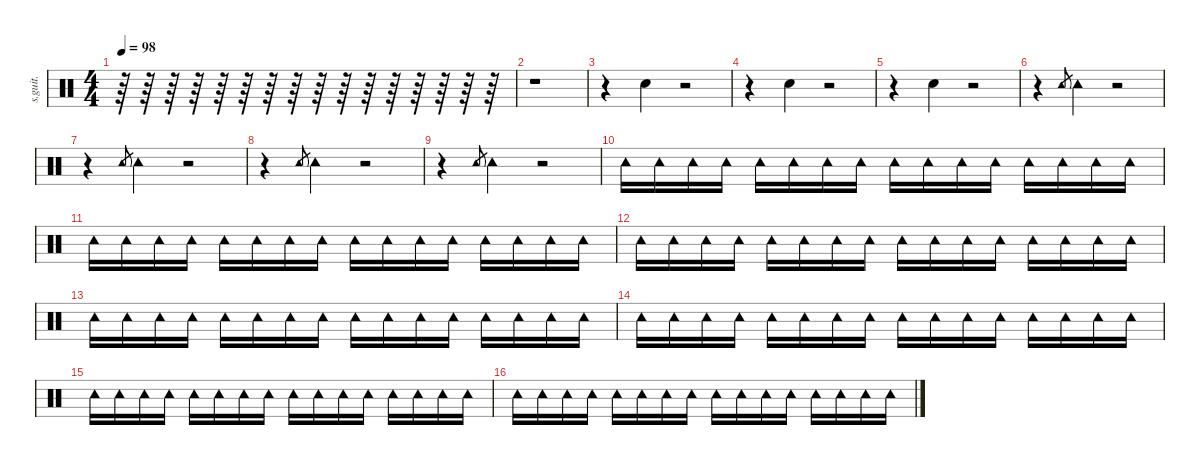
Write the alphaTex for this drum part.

\defaultSystemsLayout 4
\hideDynamics
\bracketExtendMode nobrackets
\track ("Additional Percussion" "s.guit.") {instrument percussion}
\staff {score}
\articulation defaults
\ts (4 4)
\beaming (8 2 2 2 2)
\ac
\tempo 98
\clef neutral
\ks c
r.64{dy ff} r.64 r.64 r.64 r.64 r.64 r.64 r.64 r.64 r.64 r.64 r.64 r.64 r.64 r.64 r.64 |
r.1 |
r.4 "Hand Clap (hit)".4 r.2 |
r.4 "Hand Clap (hit)".4 r.2 |
r.4 "Hand Clap (hit)".4 r.2 |
r.4 "Tambourine (hit)".8{gr} "Tambourine (hit)".4 r.2 |
r.4 "Tambourine (hit)".8{gr} "Tambourine (hit)".4 r.2 |
r.4 "Tambourine (hit)".8{gr} "Tambourine (hit)".4 r.2 |
r.4 "Tambourine (hit)".8{gr} "Tambourine (hit)".4 r.2 |
"Tambourine (hit)".16 "Tambourine (hit)".16 "Tambourine (hit)".16 "Tambourine (hit)".16 "Tambourine (hit)".16 "Tambourine (hit)".16 "Tambourine (hit)".16 "Tambourine (hit)".16 "Tambourine (hit)".16 "Tambourine (hit)".16 "Tambourine (hit)".16 "Tambourine (hit)".16 "Tambourine (hit)".16 "Tambourine (hit)".16 "Tambourine (hit)".16 "Tambourine (hit)".16 |
"Tambourine (hit)".16 "Tambourine (hit)".16 "Tambourine (hit)".16 "Tambourine (hit)".16 "Tambourine (hit)".16 "Tambourine (hit)".16 "Tambourine (hit)".16 "Tambourine (hit)".16 "Tambourine (hit)".16 "Tambourine (hit)".16 "Tambourine (hit)".16 "Tambourine (hit)".16 "Tambourine (hit)".16 "Tambourine (hit)".16 "Tambourine (hit)".16 "Tambourine (hit)".16 |
"Tambourine (hit)".16 "Tambourine (hit)".16 "Tambourine (hit)".16 "Tambourine (hit)".16 "Tambourine (hit)".16 "Tambourine (hit)".16 "Tambourine (hit)".16 "Tambourine (hit)".16 "Tambourine (hit)".16 "Tambourine (hit)".16 "Tambourine (hit)".16 "Tambourine (hit)".16 "Tambourine (hit)".16 "Tambourine (hit)".16 "Tambourine (hit)".16 "Tambourine (hit)".16 |
"Tambourine (hit)".16 "Tambourine (hit)".16 "Tambourine (hit)".16 "Tambourine (hit)".16 "Tambourine (hit)".16 "Tambourine (hit)".16 "Tambourine (hit)".16 "Tambourine (hit)".16 "Tambourine (hit)".16 "Tambourine (hit)".16 "Tambourine (hit)".16 "Tambourine (hit)".16 "Tambourine (hit)".16 "Tambourine (hit)".16 "Tambourine (hit)".16 "Tambourine (hit)".16 |
"Tambourine (hit)".16 "Tambourine (hit)".16 "Tambourine (hit)".16 "Tambourine (hit)".16 "Tambourine (hit)".16 "Tambourine (hit)".16 "Tambourine (hit)".16 "Tambourine (hit)".16 "Tambourine (hit)".16 "Tambourine (hit)".16 "Tambourine (hit)".16 "Tambourine (hit)".16 "Tambourine (hit)".16 "Tambourine (hit)".16 "Tambourine (hit)".16 "Tambourine (hit)".16 |
"Tambourine (hit)".16 "Tambourine (hit)".16 "Tambourine (hit)".16 "Tambourine (hit)".16 "Tambourine (hit)".16 "Tambourine (hit)".16 "Tambourine (hit)".16 "Tambourine (hit)".16 "Tambourine (hit)".16 "Tambourine (hit)".16 "Tambourine (hit)".16 "Tambourine (hit)".16 "Tambourine (hit)".16 "Tambourine (hit)".16 "Tambourine (hit)".16 "Tambourine (hit)".16 |
"Tambourine (hit)".16 "Tambourine (hit)".16 "Tambourine (hit)".16 "Tambourine (hit)".16 "Tambourine (hit)".16 "Tambourine (hit)".16 "Tambourine (hit)".16 "Tambourine (hit)".16 "Tambourine (hit)".16 "Tambourine (hit)".16 "Tambourine (hit)".16 "Tambourine (hit)".16 "Tambourine (hit)".16 "Tambourine (hit)".16 "Tambourine (hit)".16 "Tambourine (hit)".16
